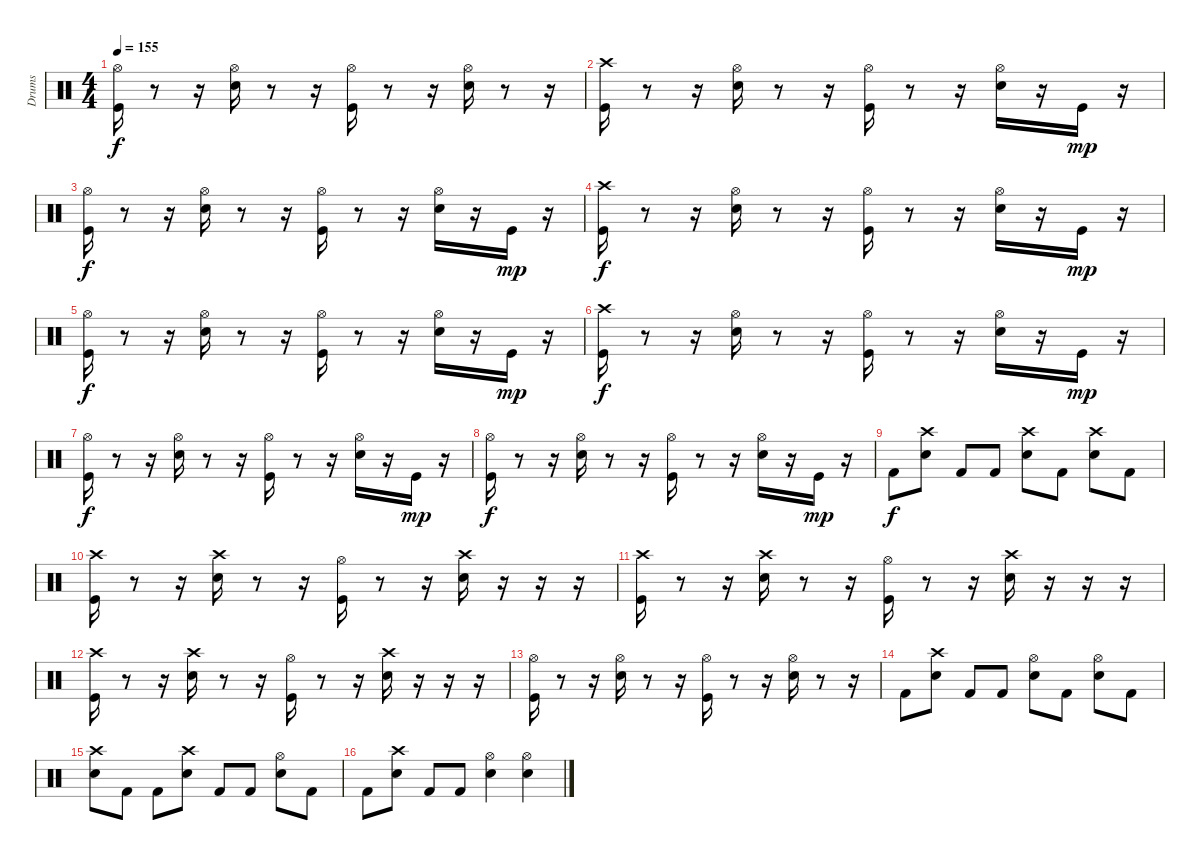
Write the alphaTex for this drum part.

\track ("Drums" "Drums") {instrument percussion}
\staff {score}
\articulation defaults
\ts (4 4)
\tempo 155
\clef neutral
\ks c
("Hi-Hat (open)" "Kick (hit)").16{dy f} r.8 r.16 ("Hi-Hat (open)" "Snare (hit) 2").16 r.8 r.16 ("Kick (hit)" "Hi-Hat (open)").16 r.8 r.16 ("Snare (hit) 2" "Hi-Hat (open)").16 r.8 r.16 |
("Crash high (hit)" "Kick (hit)").16 r.8 r.16 ("Hi-Hat (open)" "Snare (hit) 2").16 r.8 r.16 ("Kick (hit)" "Hi-Hat (open)").16 r.8 r.16 ("Snare (hit) 2" "Hi-Hat (open)").16 r.16 "Kick (hit)".16{dy mp} r.16 |
("Hi-Hat (open)" "Kick (hit)").16{dy f} r.8 r.16 ("Hi-Hat (open)" "Snare (hit) 2").16 r.8 r.16 ("Kick (hit)" "Hi-Hat (open)").16 r.8 r.16 ("Snare (hit) 2" "Hi-Hat (open)").16 r.16 "Kick (hit)".16{dy mp} r.16 |
("Crash high (hit)" "Kick (hit)").16{dy f} r.8 r.16 ("Hi-Hat (open)" "Snare (hit) 2").16 r.8 r.16 ("Kick (hit)" "Hi-Hat (open)").16 r.8 r.16 ("Snare (hit) 2" "Hi-Hat (open)").16 r.16 "Kick (hit)".16{dy mp} r.16 |
("Hi-Hat (open)" "Kick (hit)").16{dy f} r.8 r.16 ("Hi-Hat (open)" "Snare (hit) 2").16 r.8 r.16 ("Kick (hit)" "Hi-Hat (open)").16 r.8 r.16 ("Snare (hit) 2" "Hi-Hat (open)").16 r.16 "Kick (hit)".16{dy mp} r.16 |
("Crash high (hit)" "Kick (hit)").16{dy f} r.8 r.16 ("Hi-Hat (open)" "Snare (hit) 2").16 r.8 r.16 ("Kick (hit)" "Hi-Hat (open)").16 r.8 r.16 ("Snare (hit) 2" "Hi-Hat (open)").16 r.16 "Kick (hit)".16{dy mp} r.16 |
("Hi-Hat (open)" "Kick (hit)").16{dy f} r.8 r.16 ("Hi-Hat (open)" "Snare (hit) 2").16 r.8 r.16 ("Kick (hit)" "Hi-Hat (open)").16 r.8 r.16 ("Snare (hit) 2" "Hi-Hat (open)").16 r.16 "Kick (hit)".16{dy mp} r.16 |
("Hi-Hat (open)" "Kick (hit)").16{dy f} r.8 r.16 ("Hi-Hat (open)" "Snare (hit) 2").16 r.8 r.16 ("Kick (hit)" "Hi-Hat (open)").16 r.8 r.16 ("Snare (hit) 2" "Hi-Hat (open)").16 r.16 "Kick (hit)".16{dy mp} r.16 |
"Kick (hit) 2".8{dy f} ("Crash high (hit)" "Snare (hit) 2").8 "Kick (hit) 2".8 "Kick (hit) 2".8 ("Crash high (hit)" "Snare (hit) 2").8 "Kick (hit) 2".8 ("Crash high (hit)" "Snare (hit) 2").8 "Kick (hit) 2".8 |
("Crash high (hit)" "Kick (hit)").16 r.8 r.16 ("Crash high (hit)" "Snare (hit) 2").16 r.8 r.16 ("Kick (hit)" "Hi-Hat (open)").16 r.8 r.16 ("Snare (hit) 2" "Crash high (hit)").16 r.16 r.16 r.16 |
("Crash high (hit)" "Kick (hit)").16 r.8 r.16 ("Crash high (hit)" "Snare (hit) 2").16 r.8 r.16 ("Kick (hit)" "Hi-Hat (open)").16 r.8 r.16 ("Snare (hit) 2" "Crash high (hit)").16 r.16 r.16 r.16 |
("Crash high (hit)" "Kick (hit)").16 r.8 r.16 ("Crash high (hit)" "Snare (hit) 2").16 r.8 r.16 ("Kick (hit)" "Hi-Hat (open)").16 r.8 r.16 ("Snare (hit) 2" "Crash high (hit)").16 r.16 r.16 r.16 |
("Hi-Hat (open)" "Kick (hit)").16 r.8 r.16 ("Hi-Hat (open)" "Snare (hit) 2").16 r.8 r.16 ("Kick (hit)" "Hi-Hat (open)").16 r.8 r.16 ("Snare (hit) 2" "Hi-Hat (open)").16 r.8 r.16 |
"Kick (hit) 2".8 ("Crash high (hit)" "Snare (hit) 2").8 "Kick (hit) 2".8 "Kick (hit) 2".8 ("Hi-Hat (open)" "Snare (hit) 2").8 "Kick (hit) 2".8 ("Hi-Hat (open)" "Snare (hit) 2").8 "Kick (hit) 2".8 |
("Crash high (hit)" "Snare (hit) 2").8 "Kick (hit) 2".8 "Kick (hit) 2".8 ("Crash high (hit)" "Snare (hit) 2").8 "Kick (hit) 2".8 "Kick (hit) 2".8 ("Hi-Hat (open)" "Snare (hit) 2").8 "Kick (hit) 2".8 |
"Kick (hit) 2".8 ("Crash high (hit)" "Snare (hit) 2").8 "Kick (hit) 2".8 "Kick (hit) 2".8 ("Hi-Hat (open)" "Snare (hit) 2").4 ("Hi-Hat (open)" "Snare (hit) 2").4
